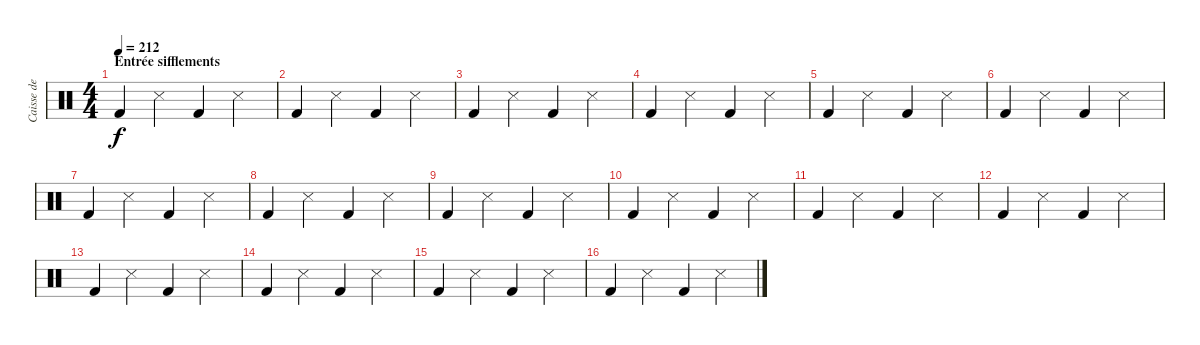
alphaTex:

\track ("Caisse de guitare" "Caisse de ") {instrument percussion}
\staff {score}
\articulation defaults
\ts (4 4)
\section ("" "Entrée sifflements")
\tempo 212
\clef neutral
\ks c "Kick (hit) 2".4{dy f} "Metronome (hit)".4 "Kick (hit) 2".4 "Metronome (hit)".4
|
"Kick (hit) 2".4 "Metronome (hit)".4 "Kick (hit) 2".4 "Metronome (hit)".4 |
"Kick (hit) 2".4 "Metronome (hit)".4 "Kick (hit) 2".4 "Metronome (hit)".4 |
"Kick (hit) 2".4 "Metronome (hit)".4 "Kick (hit) 2".4 "Metronome (hit)".4 |
"Kick (hit) 2".4 "Metronome (hit)".4 "Kick (hit) 2".4 "Metronome (hit)".4 |
"Kick (hit) 2".4 "Metronome (hit)".4 "Kick (hit) 2".4 "Metronome (hit)".4 |
"Kick (hit) 2".4 "Metronome (hit)".4 "Kick (hit) 2".4 "Metronome (hit)".4 |
"Kick (hit) 2".4 "Metronome (hit)".4 "Kick (hit) 2".4 "Metronome (hit)".4 |
"Kick (hit) 2".4 "Metronome (hit)".4 "Kick (hit) 2".4 "Metronome (hit)".4 |
"Kick (hit) 2".4 "Metronome (hit)".4 "Kick (hit) 2".4 "Metronome (hit)".4 |
"Kick (hit) 2".4 "Metronome (hit)".4 "Kick (hit) 2".4 "Metronome (hit)".4 |
"Kick (hit) 2".4 "Metronome (hit)".4 "Kick (hit) 2".4 "Metronome (hit)".4 |
"Kick (hit) 2".4 "Metronome (hit)".4 "Kick (hit) 2".4 "Metronome (hit)".4 |
"Kick (hit) 2".4 "Metronome (hit)".4 "Kick (hit) 2".4 "Metronome (hit)".4 |
"Kick (hit) 2".4 "Metronome (hit)".4 "Kick (hit) 2".4 "Metronome (hit)".4 |
"Kick (hit) 2".4 "Metronome (hit)".4 "Kick (hit) 2".4 "Metronome (hit)".4
